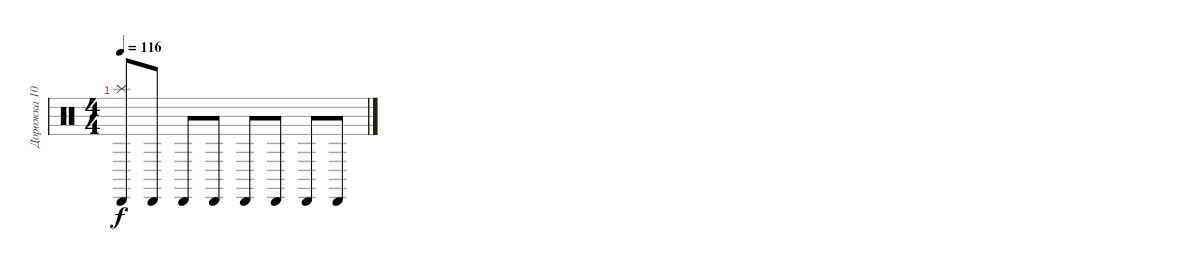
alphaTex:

\track ("Дорожка 10" "Дорожка 10") {instrument percussion}
\staff {score}
\articulation defaults
\ts (4 4)
\tempo 116
\clef neutral
\ks c
("Splash (hit)" "Cabasa (hit)").8{dy f} "Cabasa (hit)".8 "Cabasa (hit)".8 "Cabasa (hit)".8 "Cabasa (hit)".8 "Cabasa (hit)".8 "Cabasa (hit)".8 "Cabasa (hit)".8
